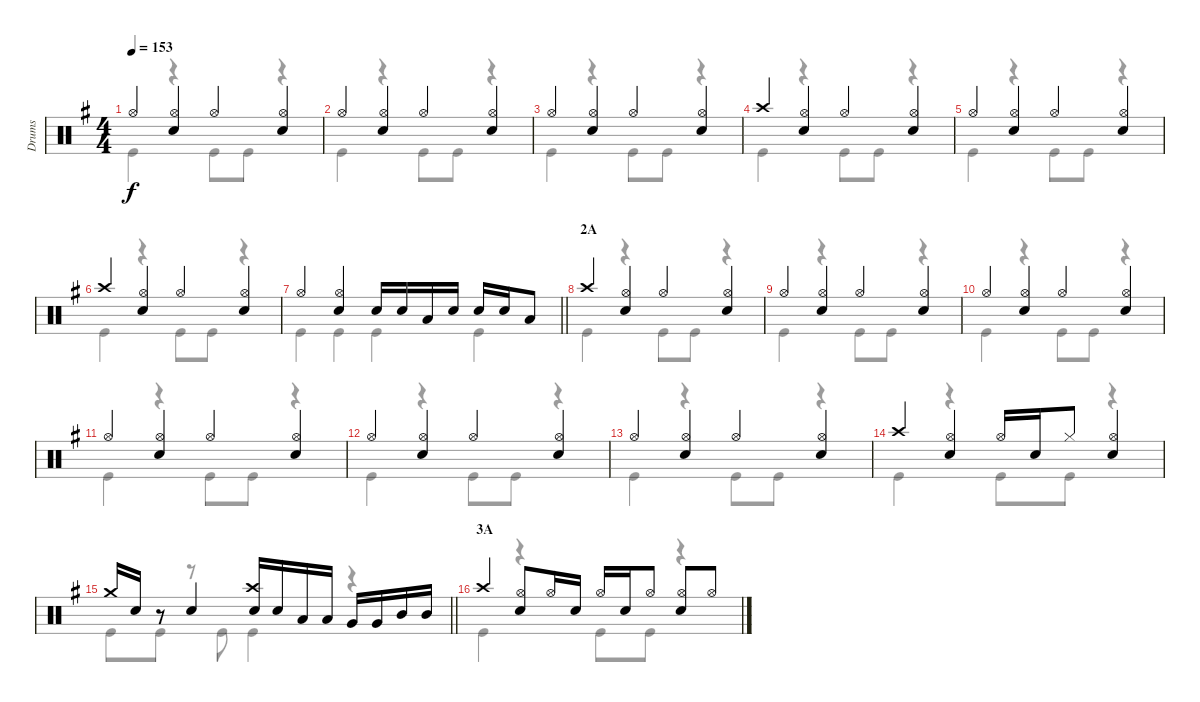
\track ("Drums" "Drums") {instrument percussion}
\staff {score}
\articulation defaults
\voice
\ts (4 4)
\tempo 153
\clef neutral
\ks g "Hi-Hat (open)".4{dy f}
("Hi-Hat (open)" "Snare (hit) 2").4 "Hi-Hat (open)".4 ("Hi-Hat (open)" "Snare (hit) 2").4 |
"Hi-Hat (open)".4 ("Hi-Hat (open)" "Snare (hit) 2").4 "Hi-Hat (open)".4 ("Hi-Hat (open)" "Snare (hit) 2").4 |
"Hi-Hat (open)".4 ("Hi-Hat (open)" "Snare (hit) 2").4 "Hi-Hat (open)".4 ("Hi-Hat (open)" "Snare (hit) 2").4 |
"Crash high (hit)".4 ("Hi-Hat (open)" "Snare (hit) 2").4 "Hi-Hat (open)".4 ("Hi-Hat (open)" "Snare (hit) 2").4 |
"Hi-Hat (open)".4 ("Hi-Hat (open)" "Snare (hit) 2").4 "Hi-Hat (open)".4 ("Hi-Hat (open)" "Snare (hit) 2").4 |
"Crash high (hit)".4 ("Hi-Hat (open)" "Snare (hit) 2").4 "Hi-Hat (open)".4 ("Hi-Hat (open)" "Snare (hit) 2").4 |
\barLineRight lightlight "Hi-Hat (open)".4
("Hi-Hat (open)" "Snare (hit) 2").4 "Snare (hit) 2".16 "Snare (hit) 2".16 "Low Tom (hit)".16 "Snare (hit) 2".16 "Snare (hit) 2".16 "Snare (hit) 2".16 "Low Tom (hit)".8 |
\section ("" "2A")
"Crash high (hit)".4 ("Hi-Hat (open)" "Snare (hit) 2").4 "Hi-Hat (open)".4 ("Hi-Hat (open)" "Snare (hit) 2").4 |
"Hi-Hat (open)".4 ("Hi-Hat (open)" "Snare (hit) 2").4 "Hi-Hat (open)".4 ("Hi-Hat (open)" "Snare (hit) 2").4 |
"Hi-Hat (open)".4 ("Hi-Hat (open)" "Snare (hit) 2").4 "Hi-Hat (open)".4 ("Hi-Hat (open)" "Snare (hit) 2").4 |
"Hi-Hat (open)".4 ("Hi-Hat (open)" "Snare (hit) 2").4 "Hi-Hat (open)".4 ("Hi-Hat (open)" "Snare (hit) 2").4 |
"Hi-Hat (open)".4 ("Hi-Hat (open)" "Snare (hit) 2").4 "Hi-Hat (open)".4 ("Hi-Hat (open)" "Snare (hit) 2").4 |
"Hi-Hat (open)".4 ("Hi-Hat (open)" "Snare (hit) 2").4 "Hi-Hat (open)".4 ("Hi-Hat (open)" "Snare (hit) 2").4 |
"Crash high (hit)".4 ("Hi-Hat (open)" "Snare (hit) 2").4 "Hi-Hat (open)".16 "Snare (hit) 2".16 "Hi-Hat (closed)".8 ("Hi-Hat (open)" "Snare (hit) 2").4 |
\barLineRight lightlight "Crash medium (hit)".16 "Snare (hit) 2".16
r.8 "Snare (hit) 2".4 ("Crash high (hit)" "Snare (hit) 2").16 "Snare (hit) 2".16 "Low Tom (hit)".16 "Low Tom (hit)".16 "Very Low Tom (hit)".16 "Very Low Tom (hit)".16 "Mid Tom (hit)".16 "Mid Tom (hit)".16 |
\section ("" "3A")
"Crash high (hit)".4 ("Hi-Hat (open)" "Snare (hit) 2").8 "Hi-Hat (open)".16 "Snare (hit) 2".16 "Hi-Hat (open)".16 "Snare (hit) 2".16 "Hi-Hat (open)".8 ("Hi-Hat (open)" "Snare (hit) 2").8 "Hi-Hat (open)".8
\voice
\clef neutral
\ottava regular
\simile none
\ks g "Kick (hit)".4{dy f}
r.4 "Kick (hit)".8 "Kick (hit)".8 r.4 |
"Kick (hit)".4 r.4 "Kick (hit)".8 "Kick (hit)".8 r.4 |
"Kick (hit)".4 r.4 "Kick (hit)".8 "Kick (hit)".8 r.4 |
"Kick (hit)".4 r.4 "Kick (hit)".8 "Kick (hit)".8 r.4 |
"Kick (hit)".4 r.4 "Kick (hit)".8 "Kick (hit)".8 r.4 |
"Kick (hit)".4 r.4 "Kick (hit)".8 "Kick (hit)".8 r.4 |
\barLineRight lightlight "Kick (hit)".4 "Kick (hit)".4 "Kick (hit)".4 "Kick (hit)".4
|
"Kick (hit)".4 r.4 "Kick (hit)".8 "Kick (hit)".8 r.4 |
"Kick (hit)".4 r.4 "Kick (hit)".8 "Kick (hit)".8 r.4 |
"Kick (hit)".4 r.4 "Kick (hit)".8 "Kick (hit)".8 r.4 |
"Kick (hit)".4 r.4 "Kick (hit)".8 "Kick (hit)".8 r.4 |
"Kick (hit)".4 r.4 "Kick (hit)".8 "Kick (hit)".8 r.4 |
"Kick (hit)".4 r.4 "Kick (hit)".8 "Kick (hit)".8 r.4 |
"Kick (hit)".4 r.4 "Kick (hit)".8 "Kick (hit)".8 r.4 |
\barLineRight lightlight "Kick (hit)".8 "Kick (hit)".8
r.8 "Kick (hit)".8 "Kick (hit)".4 r.4 |
"Kick (hit)".4 r.4 "Kick (hit)".8 "Kick (hit)".8 r.4
